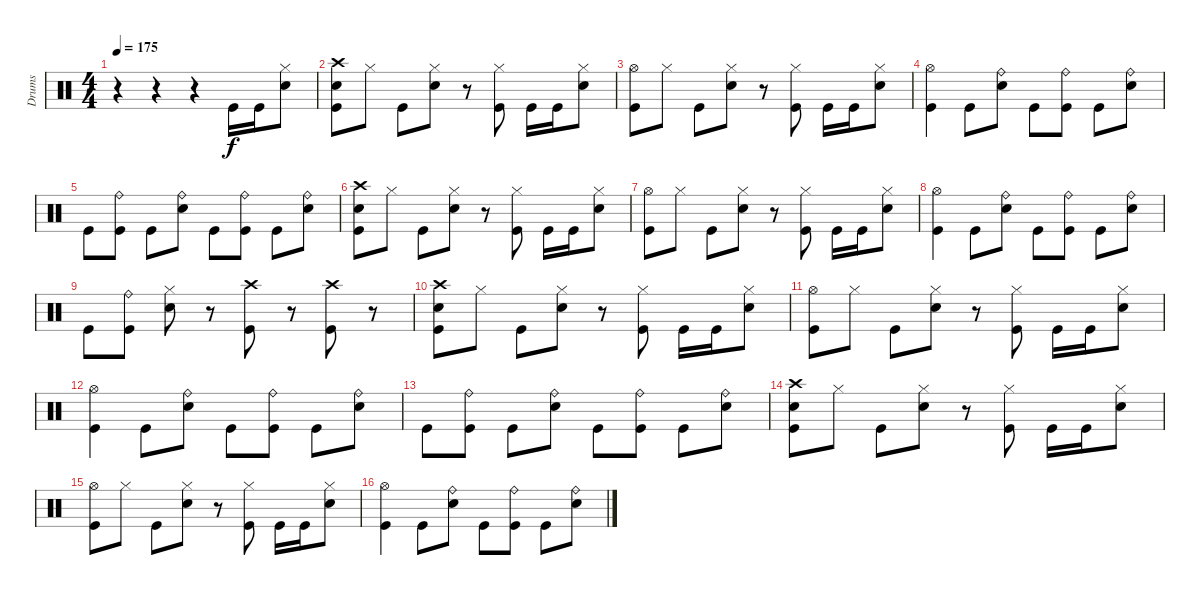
\track ("Drums" "Drums") {instrument percussion}
\staff {score}
\articulation defaults
\ts (4 4)
\tempo 175
\clef neutral
\ks c
r.4{dy f} r.4 r.4 "Kick (hit)".16 "Kick (hit)".16 ("Hi-Hat (closed)" "Electric Snare (hit)").8 |
("Crash high (hit)" "Electric Snare (hit)" "Kick (hit)").8 "Hi-Hat (closed)".8 "Kick (hit)".8 ("Hi-Hat (closed)" "Electric Snare (hit)").8 r.8 ("Hi-Hat (closed)" "Kick (hit)").8 "Kick (hit)".16 "Kick (hit)".16 ("Hi-Hat (closed)" "Electric Snare (hit)").8 |
("Hi-Hat (open)" "Kick (hit)").8 "Hi-Hat (closed)".8 "Kick (hit)".8 ("Hi-Hat (closed)" "Electric Snare (hit)").8 r.8 ("Hi-Hat (closed)" "Kick (hit)").8 "Kick (hit)".16 "Kick (hit)".16 ("Hi-Hat (closed)" "Electric Snare (hit)").8 |
("Hi-Hat (open)" "Kick (hit)").4 "Kick (hit)".8 ("Ride (bell)" "Electric Snare (hit)").8 "Kick (hit)".8 ("Ride (bell)" "Kick (hit)").8 "Kick (hit)".8 ("Ride (bell)" "Electric Snare (hit)").8 |
"Kick (hit)".8 ("Ride (bell)" "Kick (hit)").8 "Kick (hit)".8 ("Ride (bell)" "Electric Snare (hit)").8 "Kick (hit)".8 ("Ride (bell)" "Kick (hit)").8 "Kick (hit)".8 ("Ride (bell)" "Electric Snare (hit)").8 |
("Crash high (hit)" "Electric Snare (hit)" "Kick (hit)").8 "Hi-Hat (closed)".8 "Kick (hit)".8 ("Hi-Hat (closed)" "Electric Snare (hit)").8 r.8 ("Hi-Hat (closed)" "Kick (hit)").8 "Kick (hit)".16 "Kick (hit)".16 ("Hi-Hat (closed)" "Electric Snare (hit)").8 |
("Hi-Hat (open)" "Kick (hit)").8 "Hi-Hat (closed)".8 "Kick (hit)".8 ("Hi-Hat (closed)" "Electric Snare (hit)").8 r.8 ("Hi-Hat (closed)" "Kick (hit)").8 "Kick (hit)".16 "Kick (hit)".16 ("Hi-Hat (closed)" "Electric Snare (hit)").8 |
("Hi-Hat (open)" "Kick (hit)").4 "Kick (hit)".8 ("Ride (bell)" "Electric Snare (hit)").8 "Kick (hit)".8 ("Ride (bell)" "Kick (hit)").8 "Kick (hit)".8 ("Ride (bell)" "Electric Snare (hit)").8 |
"Kick (hit)".8 ("Ride (bell)" "Kick (hit)").8 ("Hi-Hat (closed)" "Electric Snare (hit)").8 r.8 ("Crash high (hit)" "Kick (hit)").8 r.8 ("Crash high (hit)" "Kick (hit)").8 r.8 |
("Crash high (hit)" "Electric Snare (hit)" "Kick (hit)").8 "Hi-Hat (closed)".8 "Kick (hit)".8 ("Hi-Hat (closed)" "Electric Snare (hit)").8 r.8 ("Hi-Hat (closed)" "Kick (hit)").8 "Kick (hit)".16 "Kick (hit)".16 ("Hi-Hat (closed)" "Electric Snare (hit)").8 |
("Hi-Hat (open)" "Kick (hit)").8 "Hi-Hat (closed)".8 "Kick (hit)".8 ("Hi-Hat (closed)" "Electric Snare (hit)").8 r.8 ("Hi-Hat (closed)" "Kick (hit)").8 "Kick (hit)".16 "Kick (hit)".16 ("Hi-Hat (closed)" "Electric Snare (hit)").8 |
("Hi-Hat (open)" "Kick (hit)").4 "Kick (hit)".8 ("Ride (bell)" "Electric Snare (hit)").8 "Kick (hit)".8 ("Ride (bell)" "Kick (hit)").8 "Kick (hit)".8 ("Ride (bell)" "Electric Snare (hit)").8 |
"Kick (hit)".8 ("Ride (bell)" "Kick (hit)").8 "Kick (hit)".8 ("Ride (bell)" "Electric Snare (hit)").8 "Kick (hit)".8 ("Ride (bell)" "Kick (hit)").8 "Kick (hit)".8 ("Ride (bell)" "Electric Snare (hit)").8 |
("Crash high (hit)" "Electric Snare (hit)" "Kick (hit)").8 "Hi-Hat (closed)".8 "Kick (hit)".8 ("Hi-Hat (closed)" "Electric Snare (hit)").8 r.8 ("Hi-Hat (closed)" "Kick (hit)").8 "Kick (hit)".16 "Kick (hit)".16 ("Hi-Hat (closed)" "Electric Snare (hit)").8 |
("Hi-Hat (open)" "Kick (hit)").8 "Hi-Hat (closed)".8 "Kick (hit)".8 ("Hi-Hat (closed)" "Electric Snare (hit)").8 r.8 ("Hi-Hat (closed)" "Kick (hit)").8 "Kick (hit)".16 "Kick (hit)".16 ("Hi-Hat (closed)" "Electric Snare (hit)").8 |
("Hi-Hat (open)" "Kick (hit)").4 "Kick (hit)".8 ("Ride (bell)" "Electric Snare (hit)").8 "Kick (hit)".8 ("Ride (bell)" "Kick (hit)").8 "Kick (hit)".8 ("Ride (bell)" "Electric Snare (hit)").8
